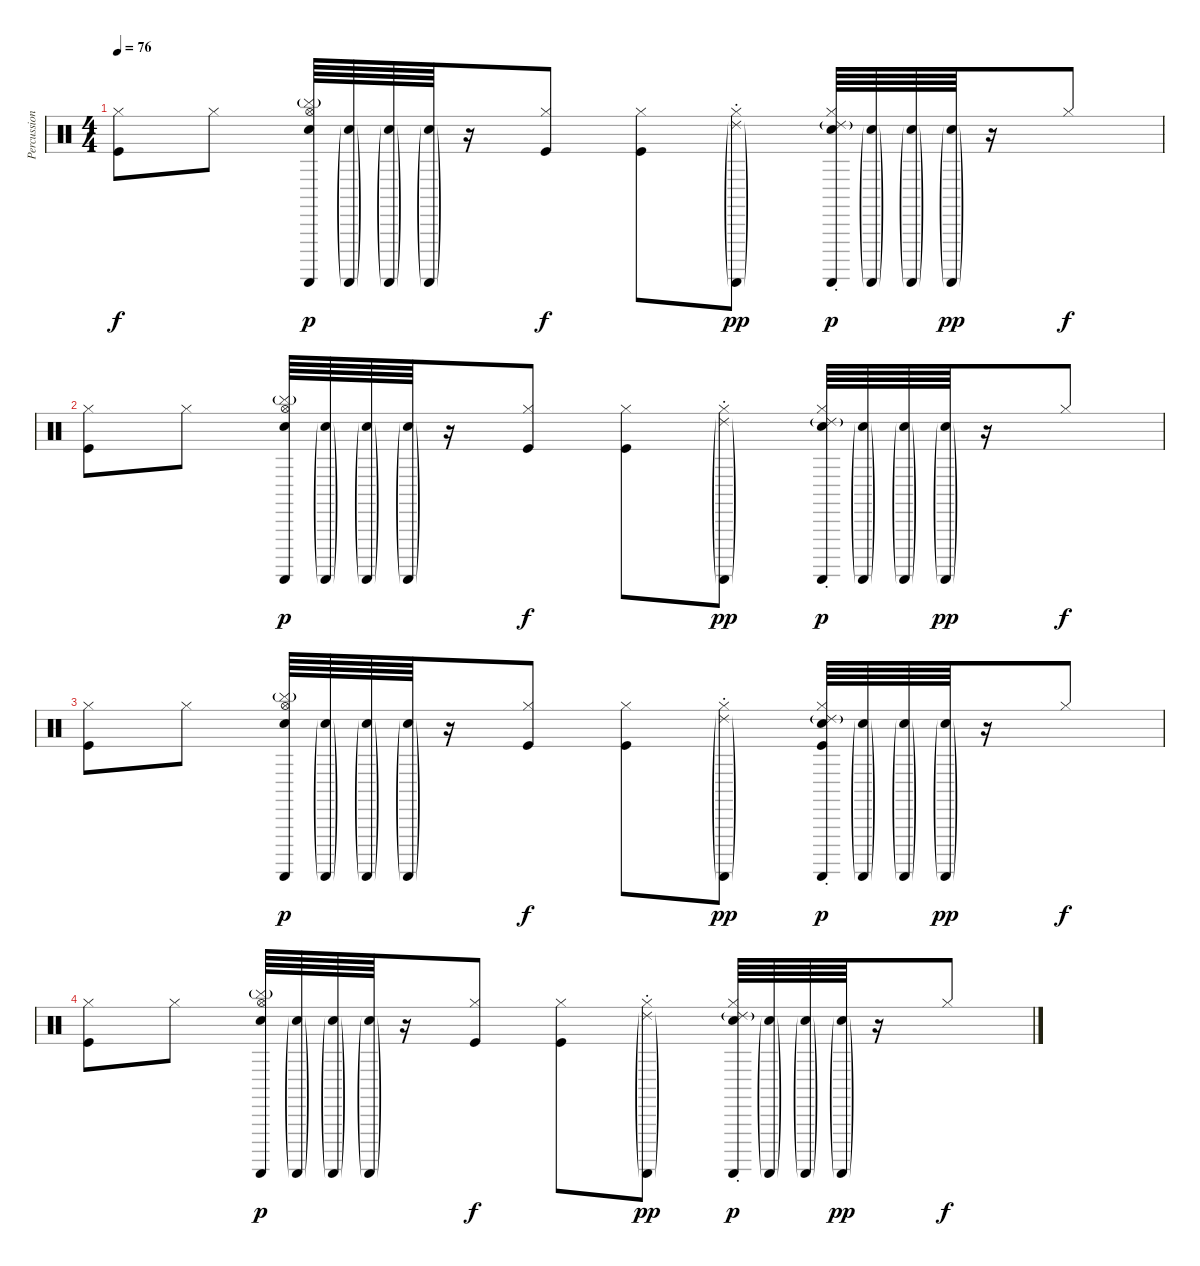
\track ("Percussion" "Percussion") {instrument percussion}
\staff {score}
\articulation defaults
\ts (4 4)
\tempo 76
\clef neutral
\ks c
("Hi-Hat (closed)" "Kick (hit)").8{dy f} "Hi-Hat (closed)".8 ("Hi-Hat (open)" "Cymbal (hit)"{g} "Snare (hit) 2" "Guiro (scrap-return)").64{dy p} ("Snare (hit) 2"{g} "Guiro (scrap-return)"{g}).64 ("Snare (hit) 2"{g} "Guiro (scrap-return)"{g}).64 ("Snare (hit) 2"{g} "Guiro (scrap-return)"{g}).64 r.16 ("Hi-Hat (closed)" "Kick (hit)").8{dy f} ("Hi-Hat (closed)" "Kick (hit)").8 ("Hi-Hat (closed)" "Ride (choke) 2"{g} "Guiro (scrap-return)"{g}).8{dy pp} ("Hi-Hat (closed)" "Ride (choke) 2"{g} "Snare (hit) 2" "Guiro (scrap-return)").64{dy p} ("Snare (hit) 2"{g} "Guiro (scrap-return)"{g}).64 ("Snare (hit) 2"{g} "Guiro (scrap-return)"{g}).64 ("Snare (hit) 2"{g} "Guiro (scrap-return)"{g}).64{dy pp} r.16 "Hi-Hat (closed)".8{dy f} |
("Hi-Hat (closed)" "Kick (hit)").8 "Hi-Hat (closed)".8 ("Hi-Hat (open)" "Cymbal (hit)"{g} "Snare (hit) 2" "Guiro (scrap-return)").64{dy p} ("Snare (hit) 2"{g} "Guiro (scrap-return)"{g}).64 ("Snare (hit) 2"{g} "Guiro (scrap-return)"{g}).64 ("Snare (hit) 2"{g} "Guiro (scrap-return)"{g}).64 r.16 ("Hi-Hat (closed)" "Kick (hit)").8{dy f} ("Hi-Hat (closed)" "Kick (hit)").8 ("Hi-Hat (closed)" "Ride (choke) 2"{g} "Guiro (scrap-return)"{g}).8{dy pp} ("Hi-Hat (closed)" "Ride (choke) 2"{g} "Snare (hit) 2" "Guiro (scrap-return)").64{dy p} ("Snare (hit) 2"{g} "Guiro (scrap-return)"{g}).64 ("Snare (hit) 2"{g} "Guiro (scrap-return)"{g}).64 ("Snare (hit) 2"{g} "Guiro (scrap-return)"{g}).64{dy pp} r.16 "Hi-Hat (closed)".8{dy f} |
("Hi-Hat (closed)" "Kick (hit)").8 "Hi-Hat (closed)".8 ("Hi-Hat (open)" "Cymbal (hit)"{g} "Snare (hit) 2" "Guiro (scrap-return)").64{dy p} ("Snare (hit) 2"{g} "Guiro (scrap-return)"{g}).64 ("Snare (hit) 2"{g} "Guiro (scrap-return)"{g}).64 ("Snare (hit) 2"{g} "Guiro (scrap-return)"{g}).64 r.16 ("Hi-Hat (closed)" "Kick (hit)").8{dy f} ("Hi-Hat (closed)" "Kick (hit)").8 ("Hi-Hat (closed)" "Ride (choke) 2"{g} "Guiro (scrap-return)"{g}).8{dy pp} ("Hi-Hat (closed)" "Ride (choke) 2"{g} "Snare (hit) 2" "Guiro (scrap-return)" "Kick (hit)").64{dy p} ("Snare (hit) 2"{g} "Guiro (scrap-return)"{g}).64 ("Snare (hit) 2"{g} "Guiro (scrap-return)"{g}).64 ("Snare (hit) 2"{g} "Guiro (scrap-return)"{g}).64{dy pp} r.16 "Hi-Hat (closed)".8{dy f} |
("Hi-Hat (closed)" "Kick (hit)").8 "Hi-Hat (closed)".8 ("Hi-Hat (open)" "Cymbal (hit)"{g} "Snare (hit) 2" "Guiro (scrap-return)").64{dy p} ("Snare (hit) 2"{g} "Guiro (scrap-return)"{g}).64 ("Snare (hit) 2"{g} "Guiro (scrap-return)"{g}).64 ("Snare (hit) 2"{g} "Guiro (scrap-return)"{g}).64 r.16 ("Hi-Hat (closed)" "Kick (hit)").8{dy f} ("Hi-Hat (closed)" "Kick (hit)").8 ("Hi-Hat (closed)" "Ride (choke) 2"{g} "Guiro (scrap-return)"{g}).8{dy pp} ("Hi-Hat (closed)" "Ride (choke) 2"{g} "Snare (hit) 2" "Guiro (scrap-return)").64{dy p} ("Snare (hit) 2"{g} "Guiro (scrap-return)"{g}).64 ("Snare (hit) 2"{g} "Guiro (scrap-return)"{g}).64 ("Snare (hit) 2"{g} "Guiro (scrap-return)"{g}).64{dy pp} r.16 "Hi-Hat (closed)".8{dy f}
